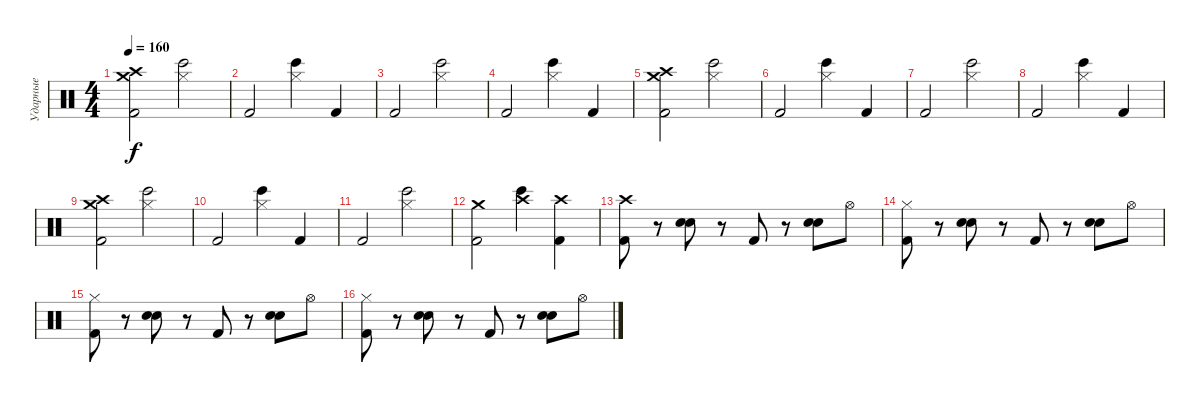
\track ("Ударные" "Ударные") {instrument percussion}
\staff {score}
\articulation defaults
\ts (4 4)
\tempo 160
\clef neutral
\ks c
("Crash high (hit)" "Crash medium (hit)" "Kick (hit) 2").2{dy f} ("Hi-Hat (closed)" "Bongo High (hit)").2 |
"Kick (hit) 2".2 ("Hi-Hat (closed)" "Bongo High (hit)").4 "Kick (hit) 2".4 |
"Kick (hit) 2".2 ("Hi-Hat (closed)" "Bongo High (hit)").2 |
"Kick (hit) 2".2 ("Hi-Hat (closed)" "Bongo High (hit)").4 "Kick (hit) 2".4 |
("Crash high (hit)" "Crash medium (hit)" "Kick (hit) 2").2 ("Hi-Hat (closed)" "Bongo High (hit)").2 |
"Kick (hit) 2".2 ("Hi-Hat (closed)" "Bongo High (hit)").4 "Kick (hit) 2".4 |
"Kick (hit) 2".2 ("Hi-Hat (closed)" "Bongo High (hit)").2 |
"Kick (hit) 2".2 ("Hi-Hat (closed)" "Bongo High (hit)").4 "Kick (hit) 2".4 |
("Crash high (hit)" "Crash medium (hit)" "Kick (hit) 2").2 ("Hi-Hat (closed)" "Bongo High (hit)").2 |
"Kick (hit) 2".2 ("Hi-Hat (closed)" "Bongo High (hit)").4 "Kick (hit) 2".4 |
"Kick (hit) 2".2 ("Hi-Hat (closed)" "Bongo High (hit)").2 |
("Crash medium (hit)" "Kick (hit) 2").2 ("Crash high (hit)" "Bongo High (hit)").4 ("Crash high (hit)" "Kick (hit) 2").4 |
("Crash high (hit)" "Kick (hit) 2").8 r.8 ("Hand Clap (hit)" "Electric Snare (hit)").8 r.8 "Kick (hit) 2".8 r.8 ("Hand Clap (hit)" "Electric Snare (hit)").8 "Hi-Hat (open)".8 |
("Hi-Hat (closed)" "Kick (hit) 2").8 r.8 ("Hand Clap (hit)" "Electric Snare (hit)").8 r.8 "Kick (hit) 2".8 r.8 ("Hand Clap (hit)" "Electric Snare (hit)").8 "Hi-Hat (open)".8 |
("Hi-Hat (closed)" "Kick (hit) 2").8 r.8 ("Hand Clap (hit)" "Electric Snare (hit)").8 r.8 "Kick (hit) 2".8 r.8 ("Hand Clap (hit)" "Electric Snare (hit)").8 "Hi-Hat (open)".8 |
("Hi-Hat (closed)" "Kick (hit) 2").8 r.8 ("Hand Clap (hit)" "Electric Snare (hit)").8 r.8 "Kick (hit) 2".8 r.8 ("Hand Clap (hit)" "Electric Snare (hit)").8 "Hi-Hat (open)".8
